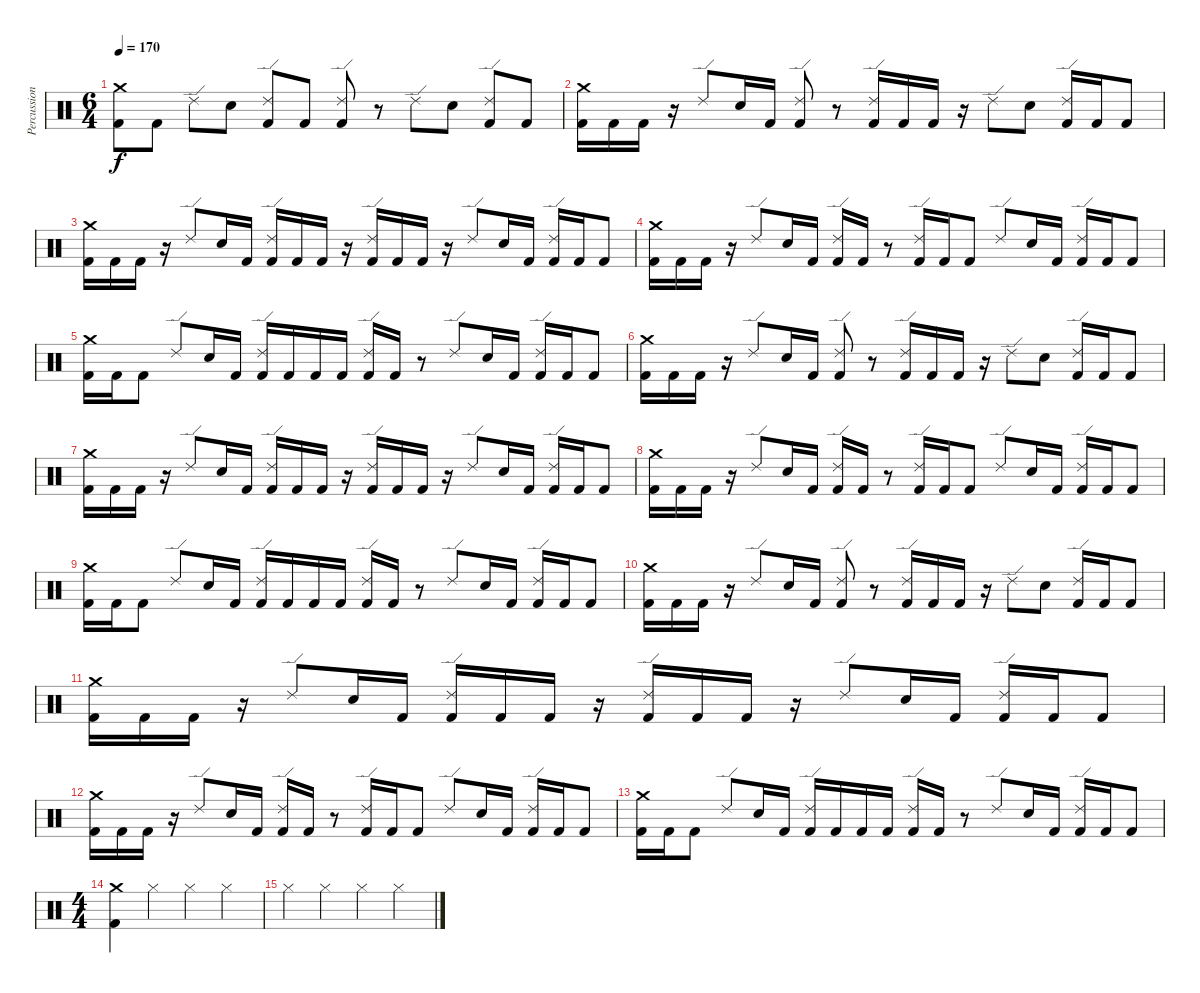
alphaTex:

\track ("Percussion" "Percussion") {instrument percussion}
\staff {score}
\articulation defaults
\ts (6 4)
\tempo 170
\clef neutral
\ks c
("Crash medium (hit)" "Kick (hit) 2").8{dy f} "Kick (hit) 2".8 "Ride (edge) 2".8 "Electric Snare (hit)".8 ("Kick (hit) 2" "Ride (edge) 2").8 "Kick (hit) 2".8 ("Ride (edge) 2" "Kick (hit) 2").8 r.8 "Ride (edge) 2".8 "Electric Snare (hit)".8 ("Ride (edge) 2" "Kick (hit) 2").8 "Kick (hit) 2".8 |
("Crash medium (hit)" "Kick (hit) 2").16 "Kick (hit) 2".16 "Kick (hit) 2".16 r.16 "Ride (edge) 2".8 "Electric Snare (hit)".16 "Kick (hit) 2".16 ("Kick (hit) 2" "Ride (edge) 2").8 r.8 ("Ride (edge) 2" "Kick (hit) 2").16 "Kick (hit) 2".16 "Kick (hit) 2".16 r.16 "Ride (edge) 2".8 "Electric Snare (hit)".8 ("Ride (edge) 2" "Kick (hit) 2").16 "Kick (hit) 2".16 "Kick (hit) 2".8 |
("Crash medium (hit)" "Kick (hit) 2").16 "Kick (hit) 2".16 "Kick (hit) 2".16 r.16 "Ride (edge) 2".8 "Electric Snare (hit)".16 "Kick (hit) 2".16 ("Kick (hit) 2" "Ride (edge) 2").16 "Kick (hit) 2".16 "Kick (hit) 2".16 r.16 ("Ride (edge) 2" "Kick (hit) 2").16 "Kick (hit) 2".16 "Kick (hit) 2".16 r.16 "Ride (edge) 2".8 "Electric Snare (hit)".16 "Kick (hit) 2".16 ("Ride (edge) 2" "Kick (hit) 2").16 "Kick (hit) 2".16 "Kick (hit) 2".8 |
("Crash medium (hit)" "Kick (hit) 2").16 "Kick (hit) 2".16 "Kick (hit) 2".16 r.16 "Ride (edge) 2".8 "Electric Snare (hit)".16 "Kick (hit) 2".16 ("Kick (hit) 2" "Ride (edge) 2").16 "Kick (hit) 2".16 r.8 ("Ride (edge) 2" "Kick (hit) 2").16 "Kick (hit) 2".16 "Kick (hit) 2".8 "Ride (edge) 2".8 "Electric Snare (hit)".16 "Kick (hit) 2".16 ("Ride (edge) 2" "Kick (hit) 2").16 "Kick (hit) 2".16 "Kick (hit) 2".8 |
("Crash medium (hit)" "Kick (hit) 2").16 "Kick (hit) 2".16 "Kick (hit) 2".8 "Ride (edge) 2".8 "Electric Snare (hit)".16 "Kick (hit) 2".16 ("Kick (hit) 2" "Ride (edge) 2").16 "Kick (hit) 2".16 "Kick (hit) 2".16 "Kick (hit) 2".16 ("Ride (edge) 2" "Kick (hit) 2").16 "Kick (hit) 2".16 r.8 "Ride (edge) 2".8 "Electric Snare (hit)".16 "Kick (hit) 2".16 ("Ride (edge) 2" "Kick (hit) 2").16 "Kick (hit) 2".16 "Kick (hit) 2".8 |
("Crash medium (hit)" "Kick (hit) 2").16 "Kick (hit) 2".16 "Kick (hit) 2".16 r.16 "Ride (edge) 2".8 "Electric Snare (hit)".16 "Kick (hit) 2".16 ("Kick (hit) 2" "Ride (edge) 2").8 r.8 ("Ride (edge) 2" "Kick (hit) 2").16 "Kick (hit) 2".16 "Kick (hit) 2".16 r.16 "Ride (edge) 2".8 "Electric Snare (hit)".8 ("Ride (edge) 2" "Kick (hit) 2").16 "Kick (hit) 2".16 "Kick (hit) 2".8 |
("Crash medium (hit)" "Kick (hit) 2").16 "Kick (hit) 2".16 "Kick (hit) 2".16 r.16 "Ride (edge) 2".8 "Electric Snare (hit)".16 "Kick (hit) 2".16 ("Kick (hit) 2" "Ride (edge) 2").16 "Kick (hit) 2".16 "Kick (hit) 2".16 r.16 ("Ride (edge) 2" "Kick (hit) 2").16 "Kick (hit) 2".16 "Kick (hit) 2".16 r.16 "Ride (edge) 2".8 "Electric Snare (hit)".16 "Kick (hit) 2".16 ("Ride (edge) 2" "Kick (hit) 2").16 "Kick (hit) 2".16 "Kick (hit) 2".8 |
("Crash medium (hit)" "Kick (hit) 2").16 "Kick (hit) 2".16 "Kick (hit) 2".16 r.16 "Ride (edge) 2".8 "Electric Snare (hit)".16 "Kick (hit) 2".16 ("Kick (hit) 2" "Ride (edge) 2").16 "Kick (hit) 2".16 r.8 ("Ride (edge) 2" "Kick (hit) 2").16 "Kick (hit) 2".16 "Kick (hit) 2".8 "Ride (edge) 2".8 "Electric Snare (hit)".16 "Kick (hit) 2".16 ("Ride (edge) 2" "Kick (hit) 2").16 "Kick (hit) 2".16 "Kick (hit) 2".8 |
("Crash medium (hit)" "Kick (hit) 2").16 "Kick (hit) 2".16 "Kick (hit) 2".8 "Ride (edge) 2".8 "Electric Snare (hit)".16 "Kick (hit) 2".16 ("Kick (hit) 2" "Ride (edge) 2").16 "Kick (hit) 2".16 "Kick (hit) 2".16 "Kick (hit) 2".16 ("Ride (edge) 2" "Kick (hit) 2").16 "Kick (hit) 2".16 r.8 "Ride (edge) 2".8 "Electric Snare (hit)".16 "Kick (hit) 2".16 ("Ride (edge) 2" "Kick (hit) 2").16 "Kick (hit) 2".16 "Kick (hit) 2".8 |
("Crash medium (hit)" "Kick (hit) 2").16 "Kick (hit) 2".16 "Kick (hit) 2".16 r.16 "Ride (edge) 2".8 "Electric Snare (hit)".16 "Kick (hit) 2".16 ("Kick (hit) 2" "Ride (edge) 2").8 r.8 ("Ride (edge) 2" "Kick (hit) 2").16 "Kick (hit) 2".16 "Kick (hit) 2".16 r.16 "Ride (edge) 2".8 "Electric Snare (hit)".8 ("Ride (edge) 2" "Kick (hit) 2").16 "Kick (hit) 2".16 "Kick (hit) 2".8 |
("Crash medium (hit)" "Kick (hit) 2").16 "Kick (hit) 2".16 "Kick (hit) 2".16 r.16 "Ride (edge) 2".8 "Electric Snare (hit)".16 "Kick (hit) 2".16 ("Kick (hit) 2" "Ride (edge) 2").16 "Kick (hit) 2".16 "Kick (hit) 2".16 r.16 ("Ride (edge) 2" "Kick (hit) 2").16 "Kick (hit) 2".16 "Kick (hit) 2".16 r.16 "Ride (edge) 2".8 "Electric Snare (hit)".16 "Kick (hit) 2".16 ("Ride (edge) 2" "Kick (hit) 2").16 "Kick (hit) 2".16 "Kick (hit) 2".8 |
("Crash medium (hit)" "Kick (hit) 2").16 "Kick (hit) 2".16 "Kick (hit) 2".16 r.16 "Ride (edge) 2".8 "Electric Snare (hit)".16 "Kick (hit) 2".16 ("Kick (hit) 2" "Ride (edge) 2").16 "Kick (hit) 2".16 r.8 ("Ride (edge) 2" "Kick (hit) 2").16 "Kick (hit) 2".16 "Kick (hit) 2".8 "Ride (edge) 2".8 "Electric Snare (hit)".16 "Kick (hit) 2".16 ("Ride (edge) 2" "Kick (hit) 2").16 "Kick (hit) 2".16 "Kick (hit) 2".8 |
("Crash medium (hit)" "Kick (hit) 2").16 "Kick (hit) 2".16 "Kick (hit) 2".8 "Ride (edge) 2".8 "Electric Snare (hit)".16 "Kick (hit) 2".16 ("Kick (hit) 2" "Ride (edge) 2").16 "Kick (hit) 2".16 "Kick (hit) 2".16 "Kick (hit) 2".16 ("Ride (edge) 2" "Kick (hit) 2").16 "Kick (hit) 2".16 r.8 "Ride (edge) 2".8 "Electric Snare (hit)".16 "Kick (hit) 2".16 ("Ride (edge) 2" "Kick (hit) 2").16 "Kick (hit) 2".16 "Kick (hit) 2".8 |
\ts (4 4)
("Crash medium (hit)" "Kick (hit) 2").4 "Hi-Hat (closed)".4 "Hi-Hat (closed)".4 "Hi-Hat (closed)".4 |
"Hi-Hat (closed)".4 "Hi-Hat (closed)".4 "Hi-Hat (closed)".4 "Hi-Hat (closed)".4
